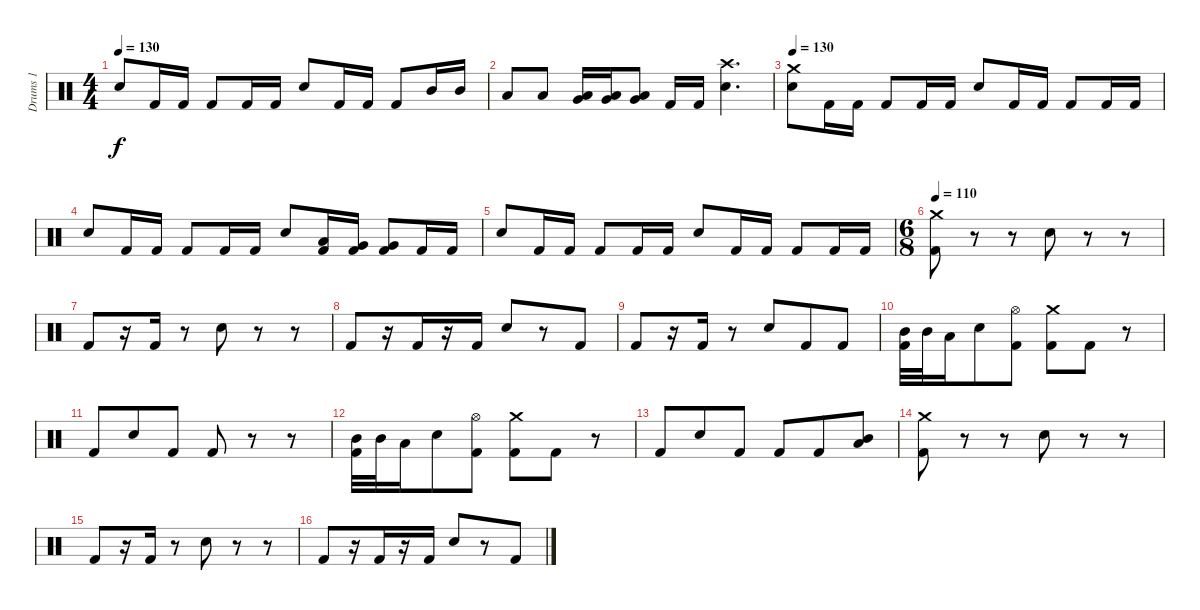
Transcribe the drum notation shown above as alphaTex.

\track ("Drums 1" "Drums 1") {instrument percussion}
\staff {score}
\articulation defaults
\ts (4 4)
\tempo 130
\clef neutral
\ks c "Snare (hit) 2".8{dy f} "Kick (hit) 2".16 "Kick (hit) 2".16 "Kick (hit) 2".8 "Kick (hit) 2".16 "Kick (hit) 2".16 "Snare (hit) 2".8 "Kick (hit) 2".16 "Kick (hit) 2".16 "Kick (hit) 2".8 "Mid Tom (hit)".16 "Mid Tom (hit)".16
|
"Low Tom (hit)".8 "Low Tom (hit)".8 ("Very Low Tom (hit)" "Low Floor Tom (hit)").16 ("Very Low Tom (hit)" "Low Floor Tom (hit)").16 ("Very Low Tom (hit)" "Low Floor Tom (hit)").8 "Kick (hit) 2".16 "Kick (hit) 2".16 ("Crash high (hit)" "Snare (hit) 2").4{d} |
\tempo 130
("Crash medium (hit)" "Snare (hit) 2").8 "Kick (hit) 2".16 "Kick (hit) 2".16 "Kick (hit) 2".8 "Kick (hit) 2".16 "Kick (hit) 2".16 "Snare (hit) 2".8 "Kick (hit) 2".16 "Kick (hit) 2".16 "Kick (hit) 2".8 "Kick (hit) 2".16 "Kick (hit) 2".16 |
"Snare (hit) 2".8 "Kick (hit) 2".16 "Kick (hit) 2".16 "Kick (hit) 2".8 "Kick (hit) 2".16 "Kick (hit) 2".16 "Snare (hit) 2".8 ("Low Tom (hit)" "Kick (hit) 2").16 ("Very Low Tom (hit)" "Kick (hit) 2").16 ("Very Low Tom (hit)" "Kick (hit) 2").8 "Kick (hit) 2".16 "Kick (hit) 2".16 |
"Snare (hit) 2".8 "Kick (hit) 2".16 "Kick (hit) 2".16 "Kick (hit) 2".8 "Kick (hit) 2".16 "Kick (hit) 2".16 "Snare (hit) 2".8 "Kick (hit) 2".16 "Kick (hit) 2".16 "Kick (hit) 2".8 "Kick (hit) 2".16 "Kick (hit) 2".16 |
\ts (6 8)
\tempo 110
("Crash medium (hit)" "Kick (hit) 2").8 r.8 r.8 "Snare (hit) 2".8 r.8 r.8 |
"Kick (hit) 2".8 r.16 "Kick (hit) 2".16 r.8 "Snare (hit) 2".8 r.8 r.8 |
"Kick (hit) 2".8 r.16 "Kick (hit) 2".16 r.16 "Kick (hit) 2".16 "Snare (hit) 2".8 r.8 "Kick (hit) 2".8 |
"Kick (hit) 2".8 r.16 "Kick (hit) 2".16 r.8 "Snare (hit) 2".8 "Kick (hit) 2".8 "Kick (hit) 2".8 |
("Mid Tom (hit)" "Kick (hit) 2").32 "Mid Tom (hit)".32 "Low Tom (hit)".16 "Snare (hit) 2".8 ("Hi-Hat (open)" "Kick (hit) 2").8 ("Crash medium (hit)" "Kick (hit) 2").8 "Kick (hit) 2".8 r.8 |
"Kick (hit) 2".8 "Snare (hit) 2".8 "Kick (hit) 2".8 "Kick (hit) 2".8 r.8 r.8 |
("Mid Tom (hit)" "Kick (hit) 2").32 "Mid Tom (hit)".32 "Low Tom (hit)".16 "Snare (hit) 2".8 ("Hi-Hat (open)" "Kick (hit) 2").8 ("Crash medium (hit)" "Kick (hit) 2").8 "Kick (hit) 2".8 r.8 |
"Kick (hit) 2".8 "Snare (hit) 2".8 "Kick (hit) 2".8 "Kick (hit) 2".8 "Kick (hit) 2".8 ("Mid Tom (hit)" "Low Tom (hit)").8 |
("Crash medium (hit)" "Kick (hit) 2").8 r.8 r.8 "Snare (hit) 2".8 r.8 r.8 |
"Kick (hit) 2".8 r.16 "Kick (hit) 2".16 r.8 "Snare (hit) 2".8 r.8 r.8 |
"Kick (hit) 2".8 r.16 "Kick (hit) 2".16 r.16 "Kick (hit) 2".16 "Snare (hit) 2".8 r.8 "Kick (hit) 2".8
